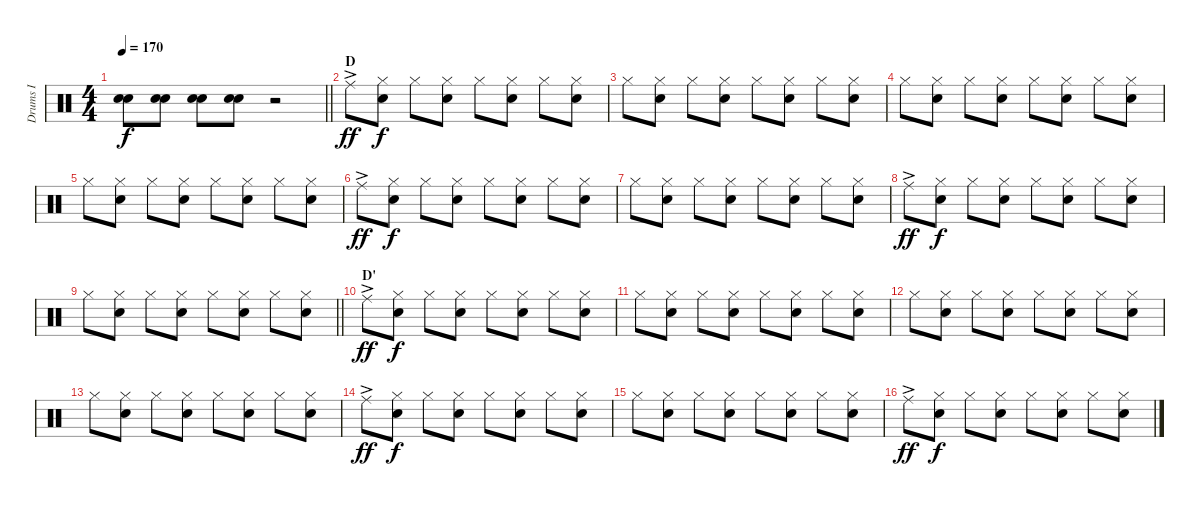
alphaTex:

\track ("Drums I" "Drums I") {instrument percussion}
\staff {score}
\articulation defaults
\ts (4 4)
\tempo 170
\clef neutral
\barLineRight lightlight
\ks c
("Snare (hit) 2" "Snare (hit) 2").8{dy f} ("Snare (hit) 2" "Snare (hit) 2").8 ("Snare (hit) 2" "Snare (hit) 2").8 ("Snare (hit) 2" "Snare (hit) 2").8 r.2 |
\section ("" "D")
"Ride (middle)"{ac}.8{dy ff} ("Hi-Hat (closed)" "Snare (hit) 2").8{dy f} "Hi-Hat (closed)".8 ("Hi-Hat (closed)" "Snare (hit) 2").8 "Hi-Hat (closed)".8 ("Hi-Hat (closed)" "Snare (hit) 2").8 "Hi-Hat (closed)".8 ("Hi-Hat (closed)" "Snare (hit) 2").8 |
"Hi-Hat (closed)".8 ("Hi-Hat (closed)" "Snare (hit) 2").8 "Hi-Hat (closed)".8 ("Hi-Hat (closed)" "Snare (hit) 2").8 "Hi-Hat (closed)".8 ("Hi-Hat (closed)" "Snare (hit) 2").8 "Hi-Hat (closed)".8 ("Hi-Hat (closed)" "Snare (hit) 2").8 |
"Hi-Hat (closed)".8 ("Hi-Hat (closed)" "Snare (hit) 2").8 "Hi-Hat (closed)".8 ("Hi-Hat (closed)" "Snare (hit) 2").8 "Hi-Hat (closed)".8 ("Hi-Hat (closed)" "Snare (hit) 2").8 "Hi-Hat (closed)".8 ("Hi-Hat (closed)" "Snare (hit) 2").8 |
"Hi-Hat (closed)".8 ("Hi-Hat (closed)" "Snare (hit) 2").8 "Hi-Hat (closed)".8 ("Hi-Hat (closed)" "Snare (hit) 2").8 "Hi-Hat (closed)".8 ("Hi-Hat (closed)" "Snare (hit) 2").8 "Hi-Hat (closed)".8 ("Hi-Hat (closed)" "Snare (hit) 2").8 |
"Ride (middle)"{ac}.8{dy ff} ("Hi-Hat (closed)" "Snare (hit) 2").8{dy f} "Hi-Hat (closed)".8 ("Hi-Hat (closed)" "Snare (hit) 2").8 "Hi-Hat (closed)".8 ("Hi-Hat (closed)" "Snare (hit) 2").8 "Hi-Hat (closed)".8 ("Hi-Hat (closed)" "Snare (hit) 2").8 |
"Hi-Hat (closed)".8 ("Hi-Hat (closed)" "Snare (hit) 2").8 "Hi-Hat (closed)".8 ("Hi-Hat (closed)" "Snare (hit) 2").8 "Hi-Hat (closed)".8 ("Hi-Hat (closed)" "Snare (hit) 2").8 "Hi-Hat (closed)".8 ("Hi-Hat (closed)" "Snare (hit) 2").8 |
"Ride (middle)"{ac}.8{dy ff} ("Hi-Hat (closed)" "Snare (hit) 2").8{dy f} "Hi-Hat (closed)".8 ("Hi-Hat (closed)" "Snare (hit) 2").8 "Hi-Hat (closed)".8 ("Hi-Hat (closed)" "Snare (hit) 2").8 "Hi-Hat (closed)".8 ("Hi-Hat (closed)" "Snare (hit) 2").8 |
\barLineRight lightlight "Hi-Hat (closed)".8
("Hi-Hat (closed)" "Snare (hit) 2").8 "Hi-Hat (closed)".8 ("Hi-Hat (closed)" "Snare (hit) 2").8 "Hi-Hat (closed)".8 ("Hi-Hat (closed)" "Snare (hit) 2").8 "Hi-Hat (closed)".8 ("Hi-Hat (closed)" "Snare (hit) 2").8 |
\section ("" "D'")
"Ride (middle)"{ac}.8{dy ff} ("Hi-Hat (closed)" "Snare (hit) 2").8{dy f} "Hi-Hat (closed)".8 ("Hi-Hat (closed)" "Snare (hit) 2").8 "Hi-Hat (closed)".8 ("Hi-Hat (closed)" "Snare (hit) 2").8 "Hi-Hat (closed)".8 ("Hi-Hat (closed)" "Snare (hit) 2").8 |
"Hi-Hat (closed)".8 ("Hi-Hat (closed)" "Snare (hit) 2").8 "Hi-Hat (closed)".8 ("Hi-Hat (closed)" "Snare (hit) 2").8 "Hi-Hat (closed)".8 ("Hi-Hat (closed)" "Snare (hit) 2").8 "Hi-Hat (closed)".8 ("Hi-Hat (closed)" "Snare (hit) 2").8 |
"Hi-Hat (closed)".8 ("Hi-Hat (closed)" "Snare (hit) 2").8 "Hi-Hat (closed)".8 ("Hi-Hat (closed)" "Snare (hit) 2").8 "Hi-Hat (closed)".8 ("Hi-Hat (closed)" "Snare (hit) 2").8 "Hi-Hat (closed)".8 ("Hi-Hat (closed)" "Snare (hit) 2").8 |
"Hi-Hat (closed)".8 ("Hi-Hat (closed)" "Snare (hit) 2").8 "Hi-Hat (closed)".8 ("Hi-Hat (closed)" "Snare (hit) 2").8 "Hi-Hat (closed)".8 ("Hi-Hat (closed)" "Snare (hit) 2").8 "Hi-Hat (closed)".8 ("Hi-Hat (closed)" "Snare (hit) 2").8 |
"Ride (middle)"{ac}.8{dy ff} ("Hi-Hat (closed)" "Snare (hit) 2").8{dy f} "Hi-Hat (closed)".8 ("Hi-Hat (closed)" "Snare (hit) 2").8 "Hi-Hat (closed)".8 ("Hi-Hat (closed)" "Snare (hit) 2").8 "Hi-Hat (closed)".8 ("Hi-Hat (closed)" "Snare (hit) 2").8 |
"Hi-Hat (closed)".8 ("Hi-Hat (closed)" "Snare (hit) 2").8 "Hi-Hat (closed)".8 ("Hi-Hat (closed)" "Snare (hit) 2").8 "Hi-Hat (closed)".8 ("Hi-Hat (closed)" "Snare (hit) 2").8 "Hi-Hat (closed)".8 ("Hi-Hat (closed)" "Snare (hit) 2").8 |
"Ride (middle)"{ac}.8{dy ff} ("Hi-Hat (closed)" "Snare (hit) 2").8{dy f} "Hi-Hat (closed)".8 ("Hi-Hat (closed)" "Snare (hit) 2").8 "Hi-Hat (closed)".8 ("Hi-Hat (closed)" "Snare (hit) 2").8 "Hi-Hat (closed)".8 ("Hi-Hat (closed)" "Snare (hit) 2").8
